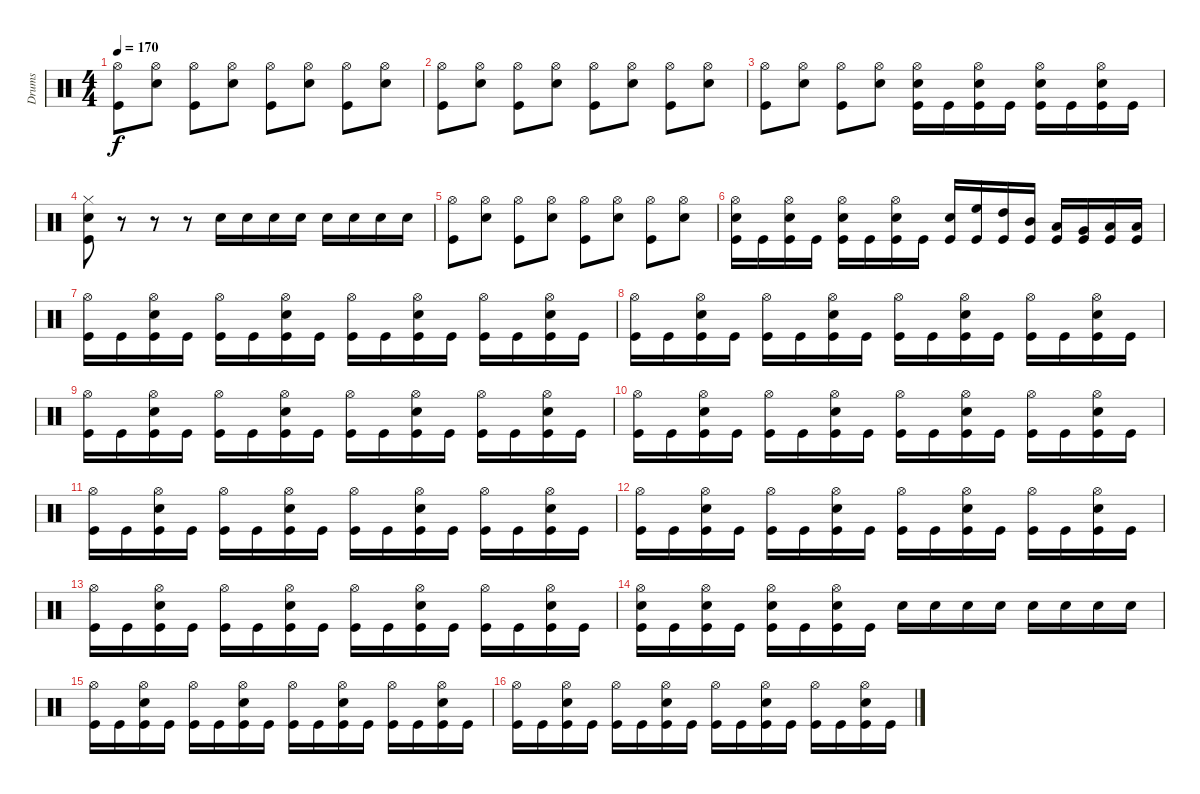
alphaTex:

\track ("Drums" "Drums") {instrument percussion}
\staff {score}
\articulation defaults
\ts (4 4)
\tempo 170
\clef neutral
\ks c
("Hi-Hat (open)" "Kick (hit)").8{dy f} ("Hi-Hat (open)" "Snare (hit) 2").8 ("Hi-Hat (open)" "Kick (hit)").8 ("Hi-Hat (open)" "Snare (hit) 2").8 ("Hi-Hat (open)" "Kick (hit)").8 ("Hi-Hat (open)" "Snare (hit) 2").8 ("Hi-Hat (open)" "Kick (hit)").8 ("Hi-Hat (open)" "Snare (hit) 2").8 |
("Hi-Hat (open)" "Kick (hit)").8 ("Hi-Hat (open)" "Snare (hit) 2").8 ("Hi-Hat (open)" "Kick (hit)").8 ("Hi-Hat (open)" "Snare (hit) 2").8 ("Hi-Hat (open)" "Kick (hit)").8 ("Hi-Hat (open)" "Snare (hit) 2").8 ("Hi-Hat (open)" "Kick (hit)").8 ("Hi-Hat (open)" "Snare (hit) 2").8 |
("Hi-Hat (open)" "Kick (hit)").8 ("Hi-Hat (open)" "Snare (hit) 2").8 ("Hi-Hat (open)" "Kick (hit)").8 ("Hi-Hat (open)" "Snare (hit) 2").8 ("Hi-Hat (open)" "Snare (hit) 2" "Kick (hit)").16 "Kick (hit)".16 ("Hi-Hat (open)" "Snare (hit) 2" "Kick (hit)").16 "Kick (hit)".16 ("Hi-Hat (open)" "Snare (hit) 2" "Kick (hit)").16 "Kick (hit)".16 ("Hi-Hat (open)" "Snare (hit) 2" "Kick (hit)").16 "Kick (hit)".16 |
("Hi-Hat (closed)" "Snare (hit) 2" "Kick (hit)").8 r.8 r.8 r.8 "Snare (hit) 2".16 "Snare (hit) 2".16 "Snare (hit) 2".16 "Snare (hit) 2".16 "Snare (hit) 2".16 "Snare (hit) 2".16 "Snare (hit) 2".16 "Snare (hit) 2".16 |
("Hi-Hat (open)" "Kick (hit)").8 ("Hi-Hat (open)" "Snare (hit) 2").8 ("Hi-Hat (open)" "Kick (hit)").8 ("Hi-Hat (open)" "Snare (hit) 2").8 ("Hi-Hat (open)" "Kick (hit)").8 ("Hi-Hat (open)" "Snare (hit) 2").8 ("Hi-Hat (open)" "Kick (hit)").8 ("Hi-Hat (open)" "Snare (hit) 2").8 |
("Hi-Hat (open)" "Snare (hit) 2" "Kick (hit)").16 "Kick (hit)".16 ("Hi-Hat (open)" "Snare (hit) 2" "Kick (hit)").16 "Kick (hit)".16 ("Hi-Hat (open)" "Snare (hit) 2" "Kick (hit)").16 "Kick (hit)".16 ("Hi-Hat (open)" "Snare (hit) 2" "Kick (hit)").16 "Kick (hit)".16 ("Snare (hit) 2" "Kick (hit)").16 ("High Floor Tom (hit)" "Kick (hit)").16 ("High Tom (hit)" "Kick (hit)").16 ("Mid Tom (hit)" "Kick (hit)").16 ("Low Tom (hit)" "Kick (hit)").16 ("Very Low Tom (hit)" "Kick (hit)").16 ("Low Floor Tom (hit)" "Kick (hit)").16 ("Low Floor Tom (hit)" "Kick (hit)").16 |
("Hi-Hat (open)" "Kick (hit)").16 "Kick (hit)".16 ("Hi-Hat (open)" "Snare (hit) 2" "Kick (hit)").16 "Kick (hit)".16 ("Hi-Hat (open)" "Kick (hit)").16 "Kick (hit)".16 ("Hi-Hat (open)" "Snare (hit) 2" "Kick (hit)").16 "Kick (hit)".16 ("Hi-Hat (open)" "Kick (hit)").16 "Kick (hit)".16 ("Hi-Hat (open)" "Snare (hit) 2" "Kick (hit)").16 "Kick (hit)".16 ("Hi-Hat (open)" "Kick (hit)").16 "Kick (hit)".16 ("Hi-Hat (open)" "Snare (hit) 2" "Kick (hit)").16 "Kick (hit)".16 |
("Hi-Hat (open)" "Kick (hit)").16 "Kick (hit)".16 ("Hi-Hat (open)" "Snare (hit) 2" "Kick (hit)").16 "Kick (hit)".16 ("Hi-Hat (open)" "Kick (hit)").16 "Kick (hit)".16 ("Hi-Hat (open)" "Snare (hit) 2" "Kick (hit)").16 "Kick (hit)".16 ("Hi-Hat (open)" "Kick (hit)").16 "Kick (hit)".16 ("Hi-Hat (open)" "Snare (hit) 2" "Kick (hit)").16 "Kick (hit)".16 ("Hi-Hat (open)" "Kick (hit)").16 "Kick (hit)".16 ("Hi-Hat (open)" "Snare (hit) 2" "Kick (hit)").16 "Kick (hit)".16 |
("Hi-Hat (open)" "Kick (hit)").16 "Kick (hit)".16 ("Hi-Hat (open)" "Snare (hit) 2" "Kick (hit)").16 "Kick (hit)".16 ("Hi-Hat (open)" "Kick (hit)").16 "Kick (hit)".16 ("Hi-Hat (open)" "Snare (hit) 2" "Kick (hit)").16 "Kick (hit)".16 ("Hi-Hat (open)" "Kick (hit)").16 "Kick (hit)".16 ("Hi-Hat (open)" "Snare (hit) 2" "Kick (hit)").16 "Kick (hit)".16 ("Hi-Hat (open)" "Kick (hit)").16 "Kick (hit)".16 ("Hi-Hat (open)" "Snare (hit) 2" "Kick (hit)").16 "Kick (hit)".16 |
("Hi-Hat (open)" "Kick (hit)").16 "Kick (hit)".16 ("Hi-Hat (open)" "Snare (hit) 2" "Kick (hit)").16 "Kick (hit)".16 ("Hi-Hat (open)" "Kick (hit)").16 "Kick (hit)".16 ("Hi-Hat (open)" "Snare (hit) 2" "Kick (hit)").16 "Kick (hit)".16 ("Hi-Hat (open)" "Kick (hit)").16 "Kick (hit)".16 ("Hi-Hat (open)" "Snare (hit) 2" "Kick (hit)").16 "Kick (hit)".16 ("Hi-Hat (open)" "Kick (hit)").16 "Kick (hit)".16 ("Hi-Hat (open)" "Snare (hit) 2" "Kick (hit)").16 "Kick (hit)".16 |
("Hi-Hat (open)" "Kick (hit)").16 "Kick (hit)".16 ("Hi-Hat (open)" "Snare (hit) 2" "Kick (hit)").16 "Kick (hit)".16 ("Hi-Hat (open)" "Kick (hit)").16 "Kick (hit)".16 ("Hi-Hat (open)" "Snare (hit) 2" "Kick (hit)").16 "Kick (hit)".16 ("Hi-Hat (open)" "Kick (hit)").16 "Kick (hit)".16 ("Hi-Hat (open)" "Snare (hit) 2" "Kick (hit)").16 "Kick (hit)".16 ("Hi-Hat (open)" "Kick (hit)").16 "Kick (hit)".16 ("Hi-Hat (open)" "Snare (hit) 2" "Kick (hit)").16 "Kick (hit)".16 |
("Hi-Hat (open)" "Kick (hit)").16 "Kick (hit)".16 ("Hi-Hat (open)" "Snare (hit) 2" "Kick (hit)").16 "Kick (hit)".16 ("Hi-Hat (open)" "Kick (hit)").16 "Kick (hit)".16 ("Hi-Hat (open)" "Snare (hit) 2" "Kick (hit)").16 "Kick (hit)".16 ("Hi-Hat (open)" "Kick (hit)").16 "Kick (hit)".16 ("Hi-Hat (open)" "Snare (hit) 2" "Kick (hit)").16 "Kick (hit)".16 ("Hi-Hat (open)" "Kick (hit)").16 "Kick (hit)".16 ("Hi-Hat (open)" "Snare (hit) 2" "Kick (hit)").16 "Kick (hit)".16 |
("Hi-Hat (open)" "Kick (hit)").16 "Kick (hit)".16 ("Hi-Hat (open)" "Snare (hit) 2" "Kick (hit)").16 "Kick (hit)".16 ("Hi-Hat (open)" "Kick (hit)").16 "Kick (hit)".16 ("Hi-Hat (open)" "Snare (hit) 2" "Kick (hit)").16 "Kick (hit)".16 ("Hi-Hat (open)" "Kick (hit)").16 "Kick (hit)".16 ("Hi-Hat (open)" "Snare (hit) 2" "Kick (hit)").16 "Kick (hit)".16 ("Hi-Hat (open)" "Kick (hit)").16 "Kick (hit)".16 ("Hi-Hat (open)" "Snare (hit) 2" "Kick (hit)").16 "Kick (hit)".16 |
("Hi-Hat (open)" "Snare (hit) 2" "Kick (hit)").16 "Kick (hit)".16 ("Hi-Hat (open)" "Snare (hit) 2" "Kick (hit)").16 "Kick (hit)".16 ("Hi-Hat (open)" "Snare (hit) 2" "Kick (hit)").16 "Kick (hit)".16 ("Hi-Hat (open)" "Snare (hit) 2" "Kick (hit)").16 "Kick (hit)".16 "Snare (hit) 2".16 "Snare (hit) 2".16 "Snare (hit) 2".16 "Snare (hit) 2".16 "Snare (hit) 2".16 "Snare (hit) 2".16 "Snare (hit) 2".16 "Snare (hit) 2".16 |
("Hi-Hat (open)" "Kick (hit)").16 "Kick (hit)".16 ("Hi-Hat (open)" "Snare (hit) 2" "Kick (hit)").16 "Kick (hit)".16 ("Hi-Hat (open)" "Kick (hit)").16 "Kick (hit)".16 ("Hi-Hat (open)" "Snare (hit) 2" "Kick (hit)").16 "Kick (hit)".16 ("Hi-Hat (open)" "Kick (hit)").16 "Kick (hit)".16 ("Hi-Hat (open)" "Snare (hit) 2" "Kick (hit)").16 "Kick (hit)".16 ("Hi-Hat (open)" "Kick (hit)").16 "Kick (hit)".16 ("Hi-Hat (open)" "Snare (hit) 2" "Kick (hit)").16 "Kick (hit)".16 |
("Hi-Hat (open)" "Kick (hit)").16 "Kick (hit)".16 ("Hi-Hat (open)" "Snare (hit) 2" "Kick (hit)").16 "Kick (hit)".16 ("Hi-Hat (open)" "Kick (hit)").16 "Kick (hit)".16 ("Hi-Hat (open)" "Snare (hit) 2" "Kick (hit)").16 "Kick (hit)".16 ("Hi-Hat (open)" "Kick (hit)").16 "Kick (hit)".16 ("Hi-Hat (open)" "Snare (hit) 2" "Kick (hit)").16 "Kick (hit)".16 ("Hi-Hat (open)" "Kick (hit)").16 "Kick (hit)".16 ("Hi-Hat (open)" "Snare (hit) 2" "Kick (hit)").16 "Kick (hit)".16
